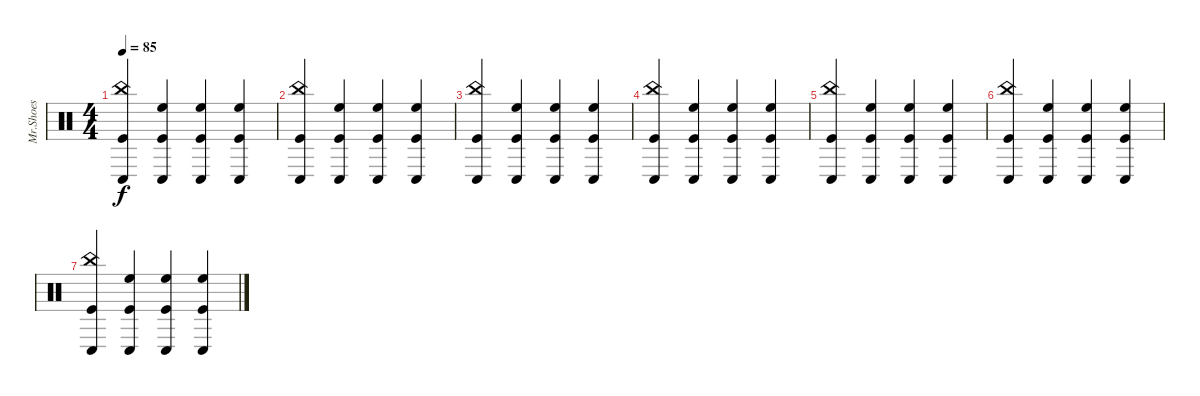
\track ("Mr.Shoes" "Mr.Shoes") {instrument percussion}
\staff {score}
\articulation defaults
\ts (4 4)
\tempo 85
\clef neutral
\ks c
("China (hit)" "Kick (hit)" "Conga low (hit)").4{dy f} ("High Floor Tom (hit)" "Kick (hit)" "Conga low (hit)").4 ("High Floor Tom (hit)" "Kick (hit)" "Conga low (hit)").4 ("High Floor Tom (hit)" "Kick (hit)" "Conga low (hit)").4 |
("China (hit)" "Kick (hit)" "Conga low (hit)").4 ("High Floor Tom (hit)" "Kick (hit)" "Conga low (hit)").4 ("High Floor Tom (hit)" "Kick (hit)" "Conga low (hit)").4 ("High Floor Tom (hit)" "Kick (hit)" "Conga low (hit)").4 |
("China (hit)" "Kick (hit)" "Conga low (hit)").4 ("High Floor Tom (hit)" "Kick (hit)" "Conga low (hit)").4 ("High Floor Tom (hit)" "Kick (hit)" "Conga low (hit)").4 ("High Floor Tom (hit)" "Kick (hit)" "Conga low (hit)").4 |
("China (hit)" "Kick (hit)" "Conga low (hit)").4 ("High Floor Tom (hit)" "Kick (hit)" "Conga low (hit)").4 ("High Floor Tom (hit)" "Kick (hit)" "Conga low (hit)").4 ("High Floor Tom (hit)" "Kick (hit)" "Conga low (hit)").4 |
("China (hit)" "Kick (hit)" "Conga low (hit)").4 ("High Floor Tom (hit)" "Kick (hit)" "Conga low (hit)").4 ("High Floor Tom (hit)" "Kick (hit)" "Conga low (hit)").4 ("High Floor Tom (hit)" "Kick (hit)" "Conga low (hit)").4 |
("China (hit)" "Kick (hit)" "Conga low (hit)").4 ("High Floor Tom (hit)" "Kick (hit)" "Conga low (hit)").4 ("High Floor Tom (hit)" "Kick (hit)" "Conga low (hit)").4 ("High Floor Tom (hit)" "Kick (hit)" "Conga low (hit)").4 |
("China (hit)" "Kick (hit)" "Conga low (hit)").4 ("High Floor Tom (hit)" "Kick (hit)" "Conga low (hit)").4 ("High Floor Tom (hit)" "Kick (hit)" "Conga low (hit)").4 ("High Floor Tom (hit)" "Kick (hit)" "Conga low (hit)").4
